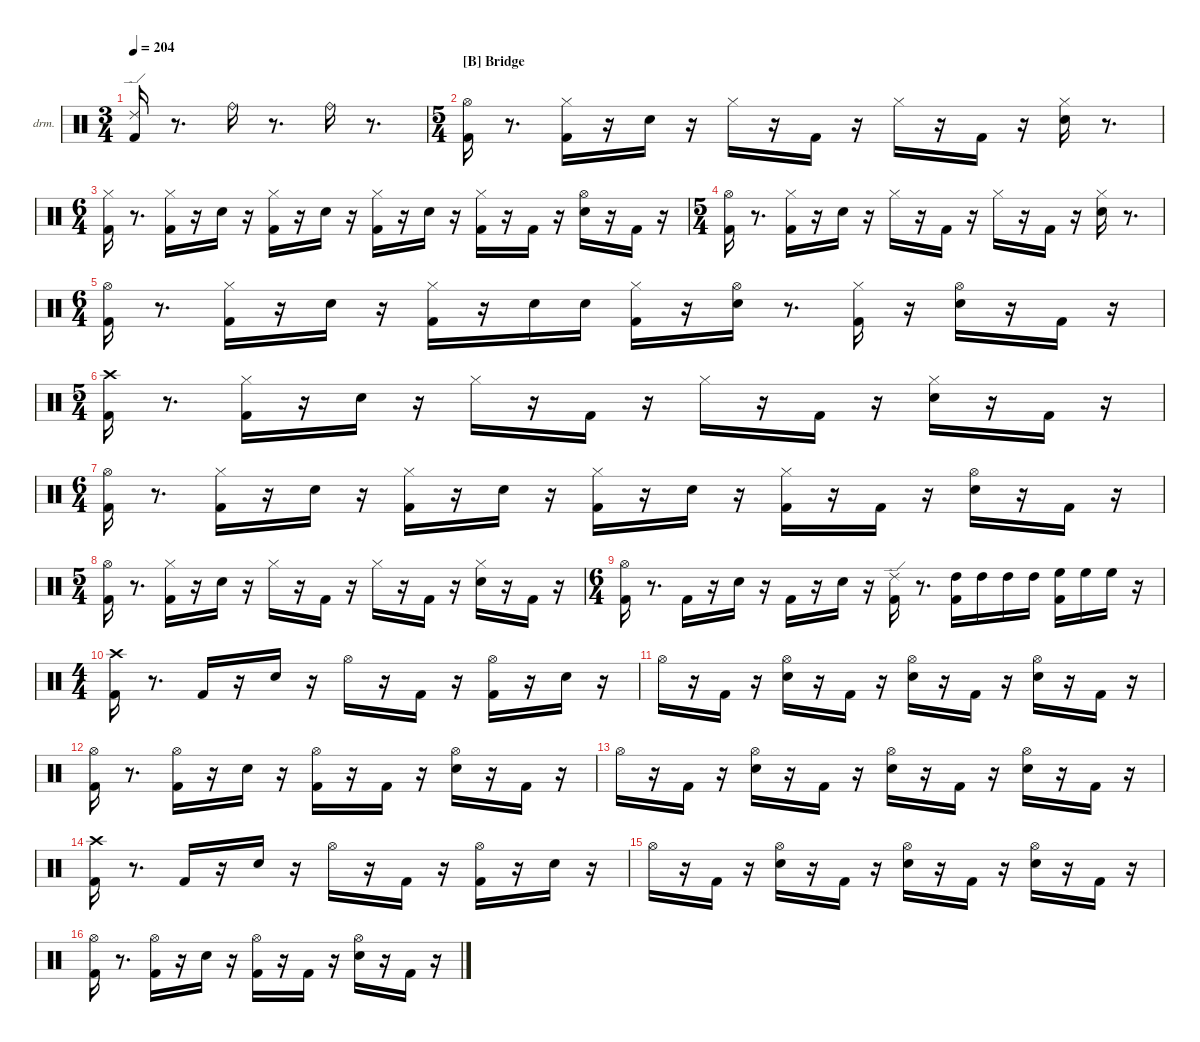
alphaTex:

\hideDynamics
\bracketExtendMode nobrackets
\firstSystemTrackNameOrientation horizontal
\track ("drums" "drm.") {instrument percussion}
\staff {score}
\articulation defaults
\ts (3 4)
\tempo 204
\clef neutral
\ks aminor
("Kick (hit) 2" "Ride (edge) 2").16{dy fff beam Up} r.8{d beam Down} "Ride (bell)".16{dy ff beam Down} r.8{d beam Down} "Ride (bell)".16{dy fff beam Down} r.8{d beam Down} |
\ts (5 4)
\section ("B" "Bridge")
("Kick (hit) 2" "Hi-Hat (open)"{acc #}).16{beam Down} r.8{d beam Down} ("Kick (hit) 2" "Hi-Hat (closed)"{acc #}).16{dy ff beam Down} r.16{beam Down} "Snare (hit) 2".16{beam Down} r.16{beam Down} "Hi-Hat (closed)"{acc #}.16{dy f beam Down} r.16{beam Down} "Kick (hit) 2".16{dy ff beam Down} r.16{beam Down} "Hi-Hat (closed)"{acc #}.16{dy fff beam Down} r.16{beam Down} "Kick (hit) 2".16{dy ff beam Down} r.16{beam Down} ("Snare (hit) 2" "Hi-Hat (closed)"{acc #}).16{dy f beam Down} r.8{d beam Down} |
\ts (6 4)
("Kick (hit) 2" "Hi-Hat (closed)"{acc #}).16{dy ff beam Down} r.8{d beam Down} ("Kick (hit) 2" "Hi-Hat (closed)"{acc #}).16{beam Down} r.16{beam Down} "Snare (hit) 2".16{dy f beam Down} r.16{beam Down} ("Kick (hit) 2" "Hi-Hat (closed)"{acc #}).16{dy ff beam Down} r.16{beam Down} "Snare (hit) 2".16{beam Down} r.16{beam Down} ("Kick (hit) 2" "Hi-Hat (closed)"{acc #}).16{beam Down} r.16{beam Down} "Snare (hit) 2".16{dy mf beam Down} r.16{beam Down} ("Kick (hit) 2" "Hi-Hat (closed)"{acc #}).16{beam Down} r.16{beam Down} "Kick (hit) 2".16{dy ff beam Down} r.16{beam Down} ("Snare (hit) 2" "Hi-Hat (open)"{acc #}).16{dy f beam Down} r.16{beam Down} "Kick (hit) 2".16{dy mf beam Down} r.16{beam Down} |
\ts (5 4)
("Kick (hit) 2" "Hi-Hat (open)"{acc #}).16{dy ff beam Down} r.8{d beam Down} ("Kick (hit) 2" "Hi-Hat (closed)"{acc #}).16{beam Down} r.16{beam Down} "Snare (hit) 2".16{dy f beam Down} r.16{beam Down} "Hi-Hat (closed)"{acc #}.16{beam Down} r.16{beam Down} "Kick (hit) 2".16{dy ff beam Down} r.16{beam Down} "Hi-Hat (closed)"{acc #}.16{dy fff beam Down} r.16{beam Down} "Kick (hit) 2".16{dy ff beam Down} r.16{beam Down} ("Snare (hit) 2" "Hi-Hat (closed)"{acc #}).16{beam Down} r.8{d beam Down} |
\ts (6 4)
("Kick (hit) 2" "Hi-Hat (open)"{acc #}).16{beam Down} r.8{d beam Down} ("Kick (hit) 2" "Hi-Hat (closed)"{acc #}).16{beam Down} r.16{beam Down} "Snare (hit) 2".16{dy mf beam Down} r.16{beam Down} ("Kick (hit) 2" "Hi-Hat (closed)"{acc #}).16{dy ff beam Down} r.16{beam Down} "Snare (hit) 2".16{dy p beam Down} "Snare (hit) 2".16{dy pp beam Down} ("Kick (hit) 2" "Hi-Hat (closed)"{acc #}).16{dy fff beam Down} r.16{beam Down} ("Snare (hit) 2" "Hi-Hat (open)"{acc #}).16{dy ff beam Down} r.8{d beam Down} ("Kick (hit) 2" "Hi-Hat (closed)"{acc #}).16{beam Down} r.16{beam Down} ("Snare (hit) 2" "Hi-Hat (open)"{acc #}).16{beam Down} r.16{beam Down} "Kick (hit) 2".16{dy mf beam Down} r.16{beam Down} |
\ts (5 4)
("Kick (hit) 2" "Crash high (hit)"{acc #}).16{dy fff beam Down} r.8{d beam Down} ("Kick (hit) 2" "Hi-Hat (closed)"{acc #}).16{dy ff beam Down} r.16{beam Down} "Snare (hit) 2".16{beam Down} r.16{beam Down} "Hi-Hat (closed)"{acc #}.16{dy f beam Down} r.16{beam Down} "Kick (hit) 2".16{dy ff beam Down} r.16{beam Down} "Hi-Hat (closed)"{acc #}.16{beam Down} r.16{beam Down} "Kick (hit) 2".16{beam Down} r.16{beam Down} ("Snare (hit) 2" "Hi-Hat (closed)"{acc #}).16{beam Down} r.16{beam Down} "Kick (hit) 2".16{dy mf beam Down} r.16{beam Down} |
\ts (6 4)
("Kick (hit) 2" "Hi-Hat (open)"{acc #}).16{dy ff beam Down} r.8{d beam Down} ("Kick (hit) 2" "Hi-Hat (closed)"{acc #}).16{beam Down} r.16{beam Down} "Snare (hit) 2".16{dy f beam Down} r.16{beam Down} ("Kick (hit) 2" "Hi-Hat (closed)"{acc #}).16{dy ff beam Down} r.16{beam Down} "Snare (hit) 2".16{beam Down} r.16{beam Down} ("Kick (hit) 2" "Hi-Hat (closed)"{acc #}).16{beam Down} r.16{beam Down} "Snare (hit) 2".16{dy mf beam Down} r.16{beam Down} ("Kick (hit) 2" "Hi-Hat (closed)"{acc #}).16{beam Down} r.16{beam Down} "Kick (hit) 2".16{dy ff beam Down} r.16{beam Down} ("Snare (hit) 2" "Hi-Hat (open)"{acc #}).16{beam Down} r.16{beam Down} "Kick (hit) 2".16{dy mp beam Down} r.16{beam Down} |
\ts (5 4)
("Kick (hit) 2" "Hi-Hat (open)"{acc #}).16{dy ff beam Down} r.8{d beam Down} ("Kick (hit) 2" "Hi-Hat (closed)"{acc #}).16{beam Down} r.16{beam Down} "Snare (hit) 2".16{beam Down} r.16{beam Down} "Hi-Hat (closed)"{acc #}.16{dy f beam Down} r.16{beam Down} "Kick (hit) 2".16{dy ff beam Down} r.16{beam Down} "Hi-Hat (closed)"{acc #}.16{dy fff beam Down} r.16{beam Down} "Kick (hit) 2".16{dy ff beam Down} r.16{beam Down} ("Snare (hit) 2" "Hi-Hat (closed)"{acc #}).16{beam Down} r.16{beam Down} "Kick (hit) 2".16{dy mf beam Down} r.16{beam Down} |
\ts (6 4)
("Kick (hit) 2" "Hi-Hat (open)"{acc #}).16{dy ff beam Down} r.8{d beam Down} "Kick (hit) 2".16{beam Down} r.16{beam Down} "Snare (hit) 2".16{dy f beam Down} r.16{beam Down} "Kick (hit) 2".16{dy ff beam Down} r.16{beam Down} "Snare (hit) 2".16{dy mf beam Down} r.16{beam Down} ("Kick (hit) 2" "Ride (edge) 2").16{dy fff beam Down} r.8{d beam Down} ("Kick (hit) 2" "High Tom (hit)").16{dy ff beam Down} "High Tom (hit)".16{dy mp beam Down} "High Tom (hit)".16{dy f beam Down} "High Tom (hit)".16{dy mf beam Down} ("Kick (hit) 2" "High Floor Tom (hit)").16{dy ff beam Down} "High Floor Tom (hit)".16{dy f beam Down} "High Floor Tom (hit)".16{dy fff beam Down} r.16{beam Down} |
\ts (4 4)
("Kick (hit) 2" "Crash high (hit)"{acc #}).16{dy ff beam Down} r.8{d beam Down} "Kick (hit) 2".16{beam Up} r.16{beam Up} "Snare (hit) 2".16{beam Up} r.16{beam Down} "Hi-Hat (open)"{acc #}.16{dy mp beam Down} r.16{beam Down} "Kick (hit) 2".16{dy f beam Down} r.16{beam Down} ("Kick (hit) 2" "Hi-Hat (open)"{acc #}).16{dy fff beam Down} r.16{beam Down} "Snare (hit) 2".16{dy ff beam Down} r.16{beam Down} |
"Hi-Hat (open)"{acc #}.16{dy fff beam Down} r.16{beam Down} "Kick (hit) 2".16{dy ff beam Down} r.16{beam Down} ("Snare (hit) 2" "Hi-Hat (open)"{acc #}).16{beam Down} r.16{beam Down} "Kick (hit) 2".16{beam Down} r.16{beam Down} ("Snare (hit) 2" "Hi-Hat (open)"{acc #}).16{beam Down} r.16{beam Down} "Kick (hit) 2".16{beam Down} r.16{beam Down} ("Snare (hit) 2" "Hi-Hat (open)"{acc #}).16{beam Down} r.16{beam Down} "Kick (hit) 2".16{dy mf beam Down} r.16{beam Down} |
("Kick (hit) 2" "Hi-Hat (open)"{acc #}).16{dy fff beam Down} r.8{d beam Down} ("Kick (hit) 2" "Hi-Hat (open)"{acc #}).16{dy ff beam Down} r.16{beam Down} "Snare (hit) 2".16{beam Down} r.16{beam Down} ("Kick (hit) 2" "Hi-Hat (open)"{acc #}).16{dy mf beam Down} r.16{beam Down} "Kick (hit) 2".16{dy ff beam Down} r.16{beam Down} ("Snare (hit) 2" "Hi-Hat (open)"{acc #}).16{dy mf beam Down} r.16{beam Down} "Kick (hit) 2".16{dy ff beam Down} r.16{beam Down} |
"Hi-Hat (open)"{acc #}.16{dy fff beam Down} r.16{beam Down} "Kick (hit) 2".16{dy ff beam Down} r.16{beam Down} ("Snare (hit) 2" "Hi-Hat (open)"{acc #}).16{beam Down} r.16{beam Down} "Kick (hit) 2".16{beam Down} r.16{beam Down} ("Snare (hit) 2" "Hi-Hat (open)"{acc #}).16{beam Down} r.16{beam Down} "Kick (hit) 2".16{beam Down} r.16{beam Down} ("Snare (hit) 2" "Hi-Hat (open)"{acc #}).16{beam Down} r.16{beam Down} "Kick (hit) 2".16{dy mf beam Down} r.16{beam Down} |
("Kick (hit) 2" "Crash high (hit)"{acc #}).16{dy fff beam Down} r.8{d beam Down} "Kick (hit) 2".16{dy ff beam Up} r.16{beam Up} "Snare (hit) 2".16{beam Up} r.16{beam Down} "Hi-Hat (open)"{acc #}.16{dy f beam Down} r.16{beam Down} "Kick (hit) 2".16{beam Down} r.16{beam Down} ("Kick (hit) 2" "Hi-Hat (open)"{acc #}).16{dy ff beam Down} r.16{beam Down} "Snare (hit) 2".16{beam Down} r.16{beam Down} |
"Hi-Hat (open)"{acc #}.16{dy fff beam Down} r.16{beam Down} "Kick (hit) 2".16{dy ff beam Down} r.16{beam Down} ("Snare (hit) 2" "Hi-Hat (open)"{acc #}).16{beam Down} r.16{beam Down} "Kick (hit) 2".16{beam Down} r.16{beam Down} ("Snare (hit) 2" "Hi-Hat (open)"{acc #}).16{beam Down} r.16{beam Down} "Kick (hit) 2".16{beam Down} r.16{beam Down} ("Snare (hit) 2" "Hi-Hat (open)"{acc #}).16{beam Down} r.16{beam Down} "Kick (hit) 2".16{dy mf beam Down} r.16{beam Down} |
("Kick (hit) 2" "Hi-Hat (open)"{acc #}).16{dy fff beam Down} r.8{d beam Down} ("Kick (hit) 2" "Hi-Hat (open)"{acc #}).16{dy ff beam Down} r.16{beam Down} "Snare (hit) 2".16{beam Down} r.16{beam Down} ("Kick (hit) 2" "Hi-Hat (open)"{acc #}).16{dy f beam Down} r.16{beam Down} "Kick (hit) 2".16{dy ff beam Down} r.16{beam Down} ("Snare (hit) 2" "Hi-Hat (open)"{acc #}).16{dy mf beam Down} r.16{beam Down} "Kick (hit) 2".16{dy ff beam Down} r.16{beam Down}
